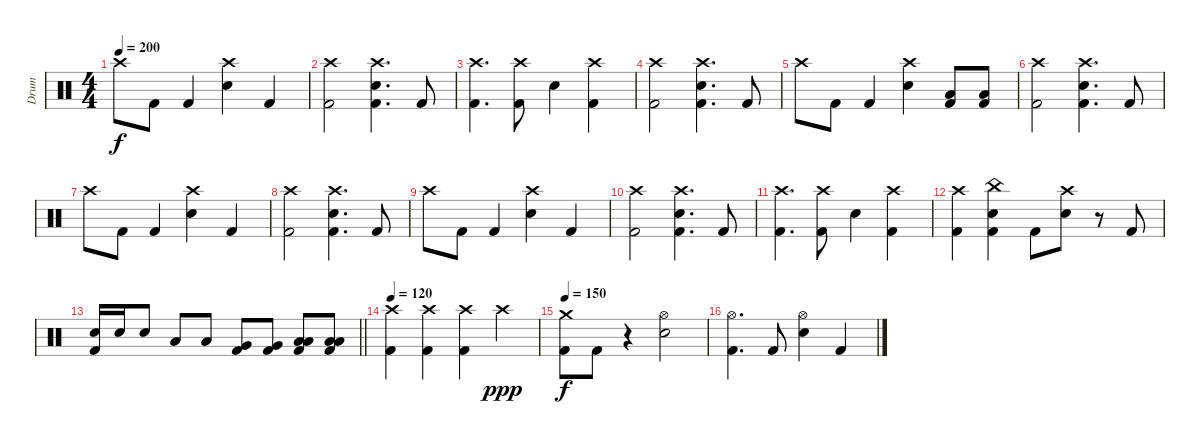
\track ("Drum" "Drum") {instrument percussion}
\staff {score}
\articulation defaults
\ts (4 4)
\tempo 200
\clef neutral
\ks c "Crash high (hit)".8{dy f} "Kick (hit) 2".8 "Kick (hit) 2".4
("Crash high (hit)" "Electric Snare (hit)").4 "Kick (hit) 2".4 |
("Crash high (hit)" "Kick (hit) 2").2 ("Crash high (hit)" "Electric Snare (hit)" "Kick (hit) 2").4{d} "Kick (hit) 2".8 |
("Crash high (hit)" "Kick (hit) 2").4{d} ("Crash high (hit)" "Kick (hit) 2").8 "Electric Snare (hit)".4 ("Crash high (hit)" "Kick (hit) 2").4 |
("Crash high (hit)" "Kick (hit) 2").2 ("Crash high (hit)" "Electric Snare (hit)" "Kick (hit) 2").4{d} "Kick (hit) 2".8 |
"Crash high (hit)".8 "Kick (hit) 2".8 "Kick (hit) 2".4 ("Crash high (hit)" "Electric Snare (hit)").4 ("Low Tom (hit)" "Kick (hit) 2").8 ("Low Tom (hit)" "Kick (hit) 2").8 |
("Crash high (hit)" "Kick (hit) 2").2 ("Crash high (hit)" "Electric Snare (hit)" "Kick (hit) 2").4{d} "Kick (hit) 2".8 |
"Crash high (hit)".8 "Kick (hit) 2".8 "Kick (hit) 2".4 ("Crash high (hit)" "Electric Snare (hit)").4 "Kick (hit) 2".4 |
("Crash high (hit)" "Kick (hit) 2").2 ("Crash high (hit)" "Electric Snare (hit)" "Kick (hit) 2").4{d} "Kick (hit) 2".8 |
"Crash high (hit)".8 "Kick (hit) 2".8 "Kick (hit) 2".4 ("Crash high (hit)" "Electric Snare (hit)").4 "Kick (hit) 2".4 |
("Crash high (hit)" "Kick (hit) 2").2 ("Crash high (hit)" "Electric Snare (hit)" "Kick (hit) 2").4{d} "Kick (hit) 2".8 |
("Crash high (hit)" "Kick (hit) 2").4{d} ("Crash high (hit)" "Kick (hit) 2").8 "Electric Snare (hit)".4 ("Crash high (hit)" "Kick (hit) 2").4 |
("Crash high (hit)" "Kick (hit) 2").4 ("China (hit)" "Electric Snare (hit)" "Kick (hit) 2").4 "Kick (hit) 2".8 ("Crash high (hit)" "Electric Snare (hit)").8 r.8 "Kick (hit) 2".8 |
\barLineRight lightlight
("Electric Snare (hit)" "Kick (hit) 2").16 "Electric Snare (hit)".16 "Electric Snare (hit)".8 "Low Tom (hit)".8 "Low Tom (hit)".8 ("Very Low Tom (hit)" "Kick (hit) 2").8 ("Very Low Tom (hit)" "Kick (hit) 2").8 ("Low Tom (hit)" "Low Floor Tom (hit)" "Kick (hit) 2").8 ("Low Tom (hit)" "Low Floor Tom (hit)" "Kick (hit) 2").8 |
\tempo 120
("Crash high (hit)" "Kick (hit) 2").4 ("Crash high (hit)" "Kick (hit) 2").4 ("Crash high (hit)" "Kick (hit) 2").4 "Crash high (hit)".4{dy ppp} |
\tempo 150
("Crash medium (hit)" "Kick (hit) 2").8{dy f} "Kick (hit) 2".8 r.4 ("Hi-Hat (open)" "Electric Snare (hit)").2 |
("Hi-Hat (open)" "Kick (hit) 2").4{d} "Kick (hit) 2".8 ("Hi-Hat (open)" "Electric Snare (hit)").4 "Kick (hit) 2".4
